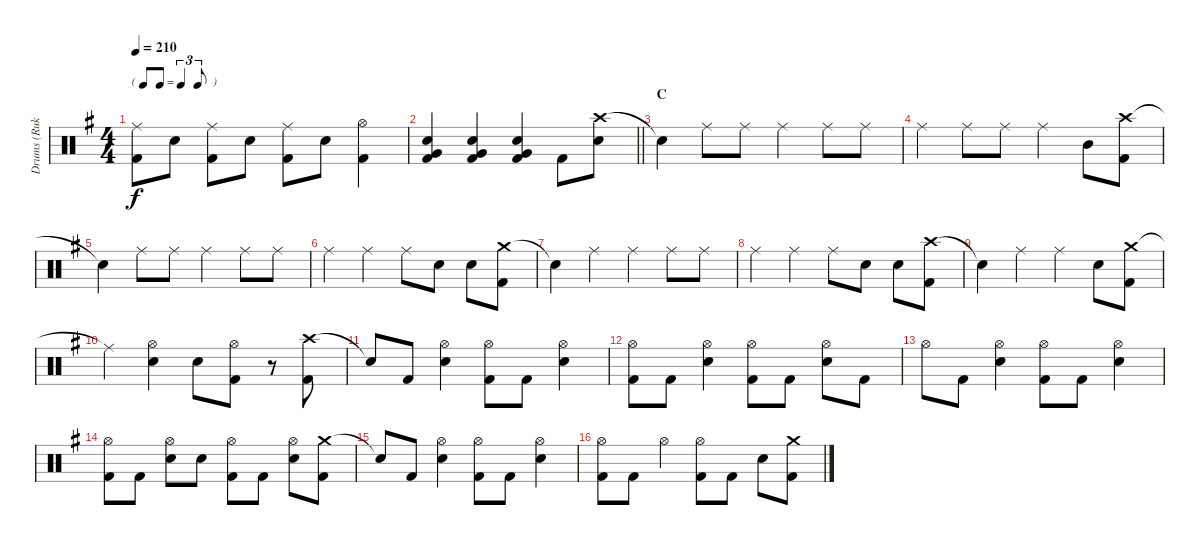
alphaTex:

\track ("Drums (Ruka)" "Drums (Ruk") {instrument percussion}
\staff {score}
\articulation defaults
\ts (4 4)
\tf triplet8th
\tempo 210
\clef neutral
\ks g
("Ride (middle)" "Kick (hit) 2").8{dy f} "Electric Snare (hit)".8 ("Ride (middle)" "Kick (hit) 2").8 "Electric Snare (hit)".8 ("Ride (middle)" "Kick (hit) 2").8 "Electric Snare (hit)".8 ("Hi-Hat (open)" "Kick (hit) 2").4 |
\barLineRight lightlight
("Electric Snare (hit)" "Very Low Tom (hit)" "Kick (hit) 2").4 ("Electric Snare (hit)" "Very Low Tom (hit)" "Kick (hit) 2").4 ("Electric Snare (hit)" "Very Low Tom (hit)" "Kick (hit) 2").4 "Kick (hit) 2".8 ("Crash high (hit)" "Electric Snare (hit)").8 |
\section ("" "C")
"Snare (hit)"{t}.4 "Ride (middle)".8 "Ride (middle)".8 "Ride (middle)".4 "Ride (middle)".8 "Ride (middle)".8 |
"Ride (middle)".4 "Ride (middle)".8 "Ride (middle)".8 "Ride (middle)".4 "Mid Tom (hit)".8 ("Crash high (hit)" "Kick (hit) 2").8 |
"Snare (hit)"{t}.4 "Ride (middle)".8 "Ride (middle)".8 "Ride (middle)".4 "Ride (middle)".8 "Ride (middle)".8 |
"Ride (middle)".4 "Ride (middle)".4 "Ride (middle)".8 "Electric Snare (hit)".8 "Electric Snare (hit)".8 ("Crash medium (hit)" "Kick (hit) 2").8 |
"Snare (hit)"{t}.4 "Ride (middle)".4 "Ride (middle)".4 "Ride (middle)".8 "Ride (middle)".8 |
"Ride (middle)".4 "Ride (middle)".4 "Ride (middle)".8 "Electric Snare (hit)".8 "Electric Snare (hit)".8 ("Crash high (hit)" "Kick (hit) 2").8 |
"Snare (hit)"{t}.4 "Ride (middle)".4 "Ride (middle)".4 "Snare (hit) 2".8 ("Crash medium (hit)" "Kick (hit) 2").8 |
"Ride (middle)"{t}.4 ("Hi-Hat (open)" "Electric Snare (hit)").4 "Electric Snare (hit)".8 ("Hi-Hat (open)" "Kick (hit) 2").8 r.8 ("Crash high (hit)" "Kick (hit) 2").8 |
"Snare (hit)"{t}.8 "Kick (hit) 2".8 ("Hi-Hat (open)" "Electric Snare (hit)").4 ("Hi-Hat (open)" "Kick (hit) 2").8 "Kick (hit) 2".8 ("Hi-Hat (open)" "Electric Snare (hit)").4 |
("Hi-Hat (open)" "Kick (hit) 2").8 "Kick (hit) 2".8 ("Hi-Hat (open)" "Electric Snare (hit)").4 ("Hi-Hat (open)" "Kick (hit) 2").8 "Kick (hit) 2".8 ("Hi-Hat (open)" "Electric Snare (hit)").8 "Kick (hit) 2".8 |
"Hi-Hat (open)".8 "Kick (hit) 2".8 ("Hi-Hat (open)" "Electric Snare (hit)").4 ("Hi-Hat (open)" "Kick (hit) 2").8 "Kick (hit) 2".8 ("Hi-Hat (open)" "Electric Snare (hit)").4 |
("Hi-Hat (open)" "Kick (hit) 2").8 "Kick (hit) 2".8 ("Hi-Hat (open)" "Electric Snare (hit)").8 "Electric Snare (hit)".8 ("Hi-Hat (open)" "Kick (hit) 2").8 "Kick (hit) 2".8 ("Hi-Hat (open)" "Electric Snare (hit)").8 ("Crash medium (hit)" "Kick (hit) 2").8 |
"Snare (hit)"{t}.8 "Kick (hit) 2".8 ("Hi-Hat (open)" "Electric Snare (hit)").4 ("Hi-Hat (open)" "Kick (hit) 2").8 "Kick (hit) 2".8 ("Hi-Hat (open)" "Electric Snare (hit)").4 |
("Hi-Hat (open)" "Kick (hit) 2").8 "Kick (hit) 2".8 "Hi-Hat (open)".4 ("Hi-Hat (open)" "Kick (hit) 2").8 "Kick (hit) 2".8 "Electric Snare (hit)".8 ("Crash medium (hit)" "Kick (hit) 2").8
